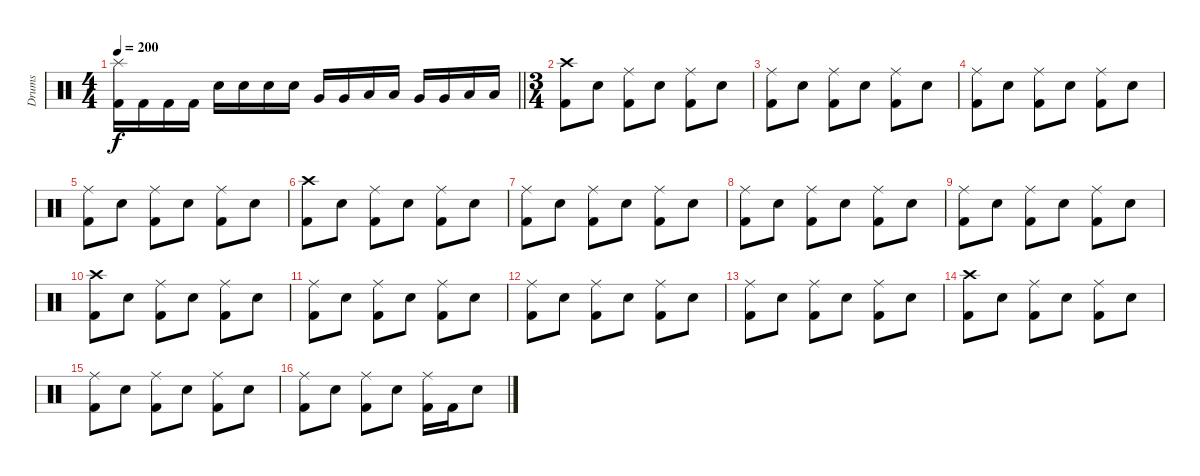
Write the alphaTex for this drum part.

\track ("Drums" "Drums") {instrument percussion}
\staff {score}
\articulation defaults
\ts (4 4)
\tempo 200
\clef neutral
\barLineRight lightlight
\ks c
("Splash (hit)" "Kick (hit) 2").16{dy f} "Kick (hit) 2".16 "Kick (hit) 2".16 "Kick (hit) 2".16 "Electric Snare (hit)".16 "Electric Snare (hit)".16 "Electric Snare (hit)".16 "Electric Snare (hit)".16 "Very Low Tom (hit)".16 "Very Low Tom (hit)".16 "Low Tom (hit)".16 "Low Tom (hit)".16 "Very Low Tom (hit)".16 "Very Low Tom (hit)".16 "Low Floor Tom (hit)".16 "Low Floor Tom (hit)".16 |
\ts (3 4)
("Crash high (hit)" "Kick (hit) 2").8 "Electric Snare (hit)".8 ("Ride (middle)" "Kick (hit) 2").8 "Electric Snare (hit)".8 ("Ride (middle)" "Kick (hit) 2").8 "Electric Snare (hit)".8 |
("Ride (middle)" "Kick (hit) 2").8 "Electric Snare (hit)".8 ("Ride (middle)" "Kick (hit) 2").8 "Electric Snare (hit)".8 ("Ride (middle)" "Kick (hit) 2").8 "Electric Snare (hit)".8 |
("Ride (middle)" "Kick (hit) 2").8 "Electric Snare (hit)".8 ("Ride (middle)" "Kick (hit) 2").8 "Electric Snare (hit)".8 ("Ride (middle)" "Kick (hit) 2").8 "Electric Snare (hit)".8 |
("Ride (middle)" "Kick (hit) 2").8 "Electric Snare (hit)".8 ("Ride (middle)" "Kick (hit) 2").8 "Electric Snare (hit)".8 ("Ride (middle)" "Kick (hit) 2").8 "Electric Snare (hit)".8 |
("Crash high (hit)" "Kick (hit) 2").8 "Electric Snare (hit)".8 ("Ride (middle)" "Kick (hit) 2").8 "Electric Snare (hit)".8 ("Ride (middle)" "Kick (hit) 2").8 "Electric Snare (hit)".8 |
("Ride (middle)" "Kick (hit) 2").8 "Electric Snare (hit)".8 ("Ride (middle)" "Kick (hit) 2").8 "Electric Snare (hit)".8 ("Ride (middle)" "Kick (hit) 2").8 "Electric Snare (hit)".8 |
("Ride (middle)" "Kick (hit) 2").8 "Electric Snare (hit)".8 ("Ride (middle)" "Kick (hit) 2").8 "Electric Snare (hit)".8 ("Ride (middle)" "Kick (hit) 2").8 "Electric Snare (hit)".8 |
("Ride (middle)" "Kick (hit) 2").8 "Electric Snare (hit)".8 ("Ride (middle)" "Kick (hit) 2").8 "Electric Snare (hit)".8 ("Ride (middle)" "Kick (hit) 2").8 "Electric Snare (hit)".8 |
("Crash high (hit)" "Kick (hit) 2").8 "Electric Snare (hit)".8 ("Ride (middle)" "Kick (hit) 2").8 "Electric Snare (hit)".8 ("Ride (middle)" "Kick (hit) 2").8 "Electric Snare (hit)".8 |
("Ride (middle)" "Kick (hit) 2").8 "Electric Snare (hit)".8 ("Ride (middle)" "Kick (hit) 2").8 "Electric Snare (hit)".8 ("Ride (middle)" "Kick (hit) 2").8 "Electric Snare (hit)".8 |
("Ride (middle)" "Kick (hit) 2").8 "Electric Snare (hit)".8 ("Ride (middle)" "Kick (hit) 2").8 "Electric Snare (hit)".8 ("Ride (middle)" "Kick (hit) 2").8 "Electric Snare (hit)".8 |
("Ride (middle)" "Kick (hit) 2").8 "Electric Snare (hit)".8 ("Ride (middle)" "Kick (hit) 2").8 "Electric Snare (hit)".8 ("Ride (middle)" "Kick (hit) 2").8 "Electric Snare (hit)".8 |
("Crash high (hit)" "Kick (hit) 2").8 "Electric Snare (hit)".8 ("Ride (middle)" "Kick (hit) 2").8 "Electric Snare (hit)".8 ("Ride (middle)" "Kick (hit) 2").8 "Electric Snare (hit)".8 |
("Ride (middle)" "Kick (hit) 2").8 "Electric Snare (hit)".8 ("Ride (middle)" "Kick (hit) 2").8 "Electric Snare (hit)".8 ("Ride (middle)" "Kick (hit) 2").8 "Electric Snare (hit)".8 |
("Ride (middle)" "Kick (hit) 2").8 "Electric Snare (hit)".8 ("Ride (middle)" "Kick (hit) 2").8 "Electric Snare (hit)".8 ("Ride (middle)" "Kick (hit) 2").16 "Kick (hit) 2".16 "Electric Snare (hit)".8
